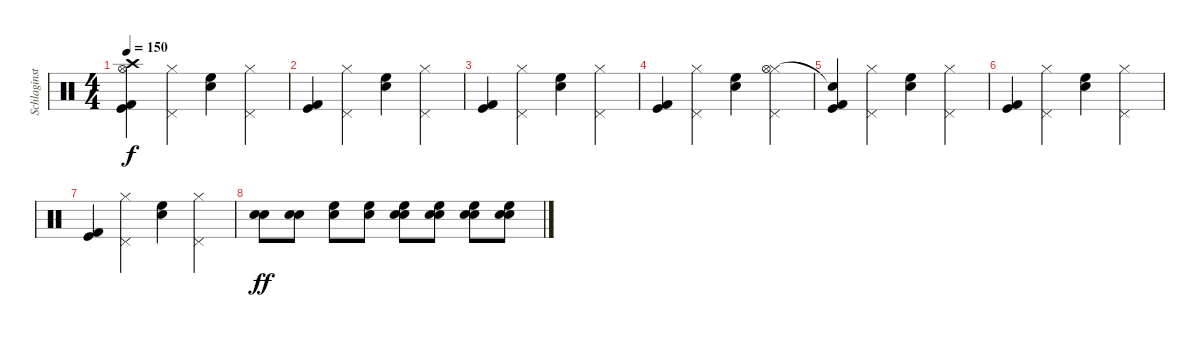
\track ("Schlaginstrumente - Auswahl" "Schlaginst") {instrument percussion}
\staff {score}
\articulation defaults
\ts (4 4)
\tempo 150
\clef neutral
\ks c
("Kick (hit) 2" "Kick (hit)" "Hi-Hat (open)" "Crash high (hit)").4{dy f} ("Pedal Hi-Hat (hit)" "Hi-Hat (closed)").4 ("High Floor Tom (hit)" "Snare (hit) 2").4 ("Pedal Hi-Hat (hit)" "Hi-Hat (closed)").4 |
("Kick (hit) 2" "Kick (hit)").4 ("Pedal Hi-Hat (hit)" "Hi-Hat (closed)").4 ("High Floor Tom (hit)" "Snare (hit) 2").4 ("Pedal Hi-Hat (hit)" "Hi-Hat (closed)").4 |
("Kick (hit) 2" "Kick (hit)").4 ("Pedal Hi-Hat (hit)" "Hi-Hat (closed)").4 ("High Floor Tom (hit)" "Snare (hit) 2").4 ("Pedal Hi-Hat (hit)" "Hi-Hat (closed)").4 |
("Kick (hit) 2" "Kick (hit)").4 ("Pedal Hi-Hat (hit)" "Hi-Hat (closed)").4 ("High Floor Tom (hit)" "Snare (hit) 2").4 ("Pedal Hi-Hat (hit)" "Hi-Hat (closed)" "Hi-Hat (open)").4 |
("Kick (hit) 2" "Kick (hit)" "Snare (hit)"{t}).4 ("Pedal Hi-Hat (hit)" "Hi-Hat (closed)").4 ("High Floor Tom (hit)" "Snare (hit) 2").4 ("Pedal Hi-Hat (hit)" "Hi-Hat (closed)").4 |
("Kick (hit) 2" "Kick (hit)").4 ("Pedal Hi-Hat (hit)" "Hi-Hat (closed)").4 ("High Floor Tom (hit)" "Snare (hit) 2").4 ("Pedal Hi-Hat (hit)" "Hi-Hat (closed)").4 |
("Kick (hit) 2" "Kick (hit)").4 ("Pedal Hi-Hat (hit)" "Hi-Hat (closed)").4 ("High Floor Tom (hit)" "Snare (hit) 2").4 ("Pedal Hi-Hat (hit)" "Hi-Hat (closed)").4 |
("Snare (hit) 2" "Electric Snare (hit)").8{dy ff} ("Snare (hit) 2" "Electric Snare (hit)").8 ("Snare (hit) 2" "High Floor Tom (hit)").8 ("Snare (hit) 2" "High Floor Tom (hit)").8 ("Snare (hit) 2" "High Floor Tom (hit)" "Electric Snare (hit)").8 ("Snare (hit) 2" "High Floor Tom (hit)" "Electric Snare (hit)").8 ("Snare (hit) 2" "High Floor Tom (hit)" "Electric Snare (hit)").8 ("Snare (hit) 2" "High Floor Tom (hit)" "Electric Snare (hit)").8
